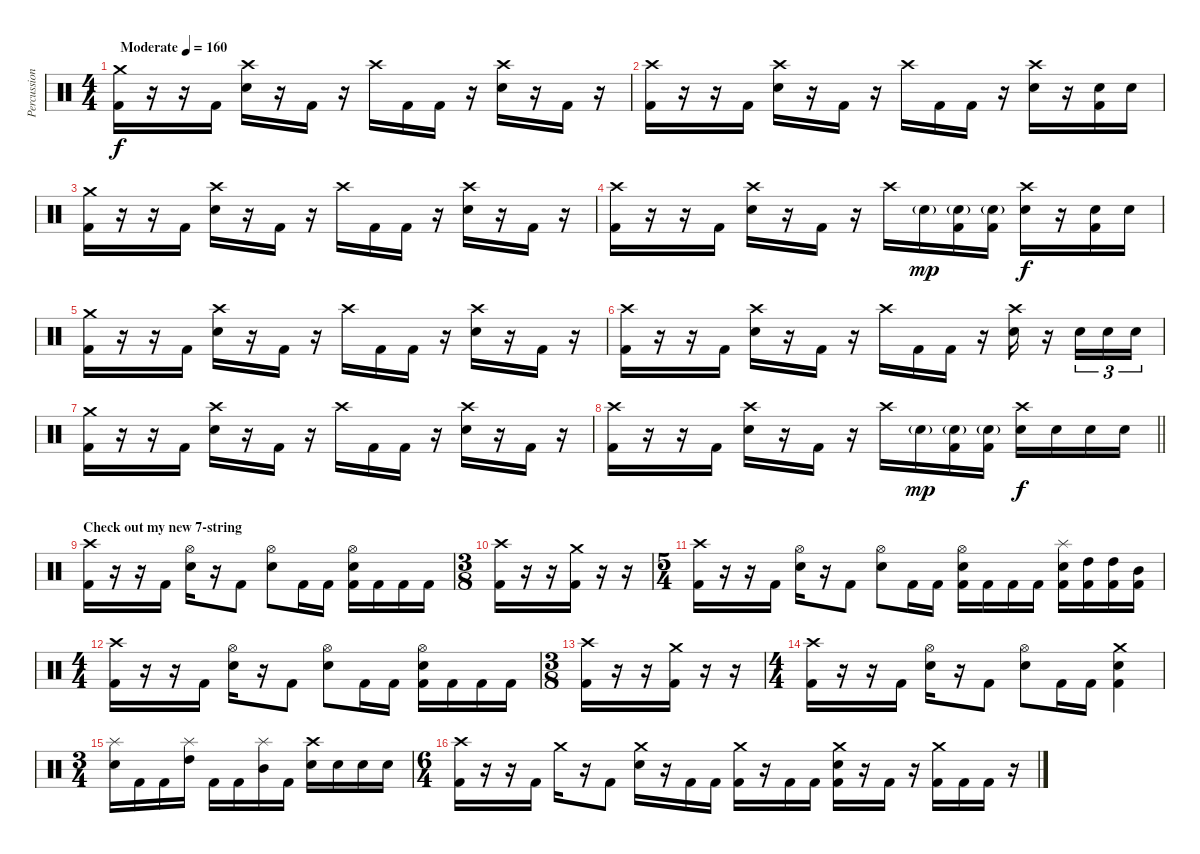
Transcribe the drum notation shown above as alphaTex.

\track ("Percussion" "Percussion") {instrument percussion}
\staff {score}
\articulation defaults
\ts (4 4)
\section ("" "")
\tempo (160 "Moderate")
\clef neutral
\ks c
("Crash medium (hit)" "Kick (hit) 2").16{dy f} r.16 r.16 "Kick (hit) 2".16 ("Crash high (hit)" "Electric Snare (hit)").16 r.16 "Kick (hit) 2".16 r.16 "Crash high (hit)".16 "Kick (hit) 2".16 "Kick (hit) 2".16 r.16 ("Crash high (hit)" "Electric Snare (hit)").16 r.16 "Kick (hit) 2".16 r.16 |
("Crash high (hit)" "Kick (hit) 2").16 r.16 r.16 "Kick (hit) 2".16 ("Crash high (hit)" "Electric Snare (hit)").16 r.16 "Kick (hit) 2".16 r.16 "Crash high (hit)".16 "Kick (hit) 2".16 "Kick (hit) 2".16 r.16 ("Crash high (hit)" "Electric Snare (hit)").16 r.16 ("Electric Snare (hit)" "Kick (hit) 2").16 "Electric Snare (hit)".16 |
("Crash medium (hit)" "Kick (hit) 2").16 r.16 r.16 "Kick (hit) 2".16 ("Crash high (hit)" "Electric Snare (hit)").16 r.16 "Kick (hit) 2".16 r.16 "Crash high (hit)".16 "Kick (hit) 2".16 "Kick (hit) 2".16 r.16 ("Crash high (hit)" "Electric Snare (hit)").16 r.16 "Kick (hit) 2".16 r.16 |
("Crash high (hit)" "Kick (hit) 2").16 r.16 r.16 "Kick (hit) 2".16 ("Crash high (hit)" "Electric Snare (hit)").16 r.16 "Kick (hit) 2".16 r.16 "Crash high (hit)".16 "Electric Snare (hit)"{g}.16{dy mp} ("Electric Snare (hit)"{g} "Kick (hit) 2").16 ("Electric Snare (hit)"{g} "Kick (hit) 2").16 ("Crash high (hit)" "Electric Snare (hit)").16{dy f} r.16 ("Electric Snare (hit)" "Kick (hit) 2").16 "Electric Snare (hit)".16 |
("Crash medium (hit)" "Kick (hit) 2").16 r.16 r.16 "Kick (hit) 2".16 ("Crash high (hit)" "Electric Snare (hit)").16 r.16 "Kick (hit) 2".16 r.16 "Crash high (hit)".16 "Kick (hit) 2".16 "Kick (hit) 2".16 r.16 ("Crash high (hit)" "Electric Snare (hit)").16 r.16 "Kick (hit) 2".16 r.16 |
("Crash high (hit)" "Kick (hit) 2").16 r.16 r.16 "Kick (hit) 2".16 ("Crash high (hit)" "Electric Snare (hit)").16 r.16 "Kick (hit) 2".16 r.16 "Crash high (hit)".16 "Kick (hit) 2".16 "Kick (hit) 2".16 r.16 ("Crash high (hit)" "Electric Snare (hit)").16 r.16 "Electric Snare (hit)".16{tu (3 2)} "Electric Snare (hit)".16{tu (3 2)} "Electric Snare (hit)".16{tu (3 2)} |
("Crash medium (hit)" "Kick (hit) 2").16 r.16 r.16 "Kick (hit) 2".16 ("Crash high (hit)" "Electric Snare (hit)").16 r.16 "Kick (hit) 2".16 r.16 "Crash high (hit)".16 "Kick (hit) 2".16 "Kick (hit) 2".16 r.16 ("Crash high (hit)" "Electric Snare (hit)").16 r.16 "Kick (hit) 2".16 r.16 |
\barLineRight lightlight
("Crash high (hit)" "Kick (hit) 2").16 r.16 r.16 "Kick (hit) 2".16 ("Crash high (hit)" "Electric Snare (hit)").16 r.16 "Kick (hit) 2".16 r.16 "Crash high (hit)".16 "Electric Snare (hit)"{g}.16{dy mp} ("Electric Snare (hit)"{g} "Kick (hit) 2").16 ("Electric Snare (hit)"{g} "Kick (hit) 2").16 ("Crash high (hit)" "Electric Snare (hit)").16{dy f} "Electric Snare (hit)".16 "Electric Snare (hit)".16 "Electric Snare (hit)".16 |
\section ("" "Check out my new 7-string")
("Crash high (hit)" "Kick (hit) 2").16 r.16 r.16 "Kick (hit) 2".16 ("Hi-Hat (open)" "Electric Snare (hit)").16 r.16 "Kick (hit) 2".8 ("Hi-Hat (open)" "Electric Snare (hit)").8 "Kick (hit) 2".16 "Kick (hit) 2".16 ("Hi-Hat (open)" "Electric Snare (hit)" "Kick (hit) 2").16 "Kick (hit) 2".16 "Kick (hit) 2".16 "Kick (hit) 2".16 |
\ts (3 8)
("Crash high (hit)" "Kick (hit) 2").16 r.16 r.16 ("Crash medium (hit)" "Kick (hit) 2").16 r.16 r.16 |
\ts (5 4)
("Crash high (hit)" "Kick (hit) 2").16 r.16 r.16 "Kick (hit) 2".16 ("Hi-Hat (open)" "Electric Snare (hit)").16 r.16 "Kick (hit) 2".8 ("Hi-Hat (open)" "Electric Snare (hit)").8 "Kick (hit) 2".16 "Kick (hit) 2".16 ("Hi-Hat (open)" "Electric Snare (hit)" "Kick (hit) 2").16 "Kick (hit) 2".16 "Kick (hit) 2".16 "Kick (hit) 2".16 ("Splash (hit)" "Electric Snare (hit)" "Kick (hit) 2").16 ("High Tom (hit)" "Kick (hit) 2").16 ("High Tom (hit)" "Kick (hit) 2").16 ("Mid Tom (hit)" "Kick (hit) 2").16 |
\ts (4 4)
("Crash high (hit)" "Kick (hit) 2").16 r.16 r.16 "Kick (hit) 2".16 ("Hi-Hat (open)" "Electric Snare (hit)").16 r.16 "Kick (hit) 2".8 ("Hi-Hat (open)" "Electric Snare (hit)").8 "Kick (hit) 2".16 "Kick (hit) 2".16 ("Hi-Hat (open)" "Electric Snare (hit)" "Kick (hit) 2").16 "Kick (hit) 2".16 "Kick (hit) 2".16 "Kick (hit) 2".16 |
\ts (3 8)
("Crash high (hit)" "Kick (hit) 2").16 r.16 r.16 ("Crash medium (hit)" "Kick (hit) 2").16 r.16 r.16 |
\ts (4 4)
("Crash high (hit)" "Kick (hit) 2").16 r.16 r.16 "Kick (hit) 2".16 ("Hi-Hat (open)" "Electric Snare (hit)").16 r.16 "Kick (hit) 2".8 ("Hi-Hat (open)" "Electric Snare (hit)").8 "Kick (hit) 2".16 "Kick (hit) 2".16 ("Crash medium (hit)" "Electric Snare (hit)" "Kick (hit) 2").4 |
\ts (3 4)
("Splash (hit)" "Electric Snare (hit)").16 "Kick (hit) 2".16 "Kick (hit) 2".16 ("Splash (hit)" "High Tom (hit)").16 "Kick (hit) 2".16 "Kick (hit) 2".16 ("Splash (hit)" "Mid Tom (hit)").16 "Kick (hit) 2".16 ("Crash high (hit)" "Electric Snare (hit)").16 "Electric Snare (hit)".16 "Electric Snare (hit)".16 "Electric Snare (hit)".16 |
\ts (6 4)
("Crash high (hit)" "Kick (hit) 2").16 r.16 r.16 "Kick (hit) 2".16 "Crash medium (hit)".16 r.16 "Kick (hit) 2".8 ("Crash medium (hit)" "Electric Snare (hit)").16 r.16 "Kick (hit) 2".16 "Kick (hit) 2".16 ("Crash medium (hit)" "Kick (hit) 2").16 r.16 "Kick (hit) 2".16 "Kick (hit) 2".16 ("Crash medium (hit)" "Electric Snare (hit)" "Kick (hit) 2").16 r.16 "Kick (hit) 2".16 r.16 ("Crash medium (hit)" "Kick (hit) 2").16 "Kick (hit) 2".16 "Kick (hit) 2".16 r.16
